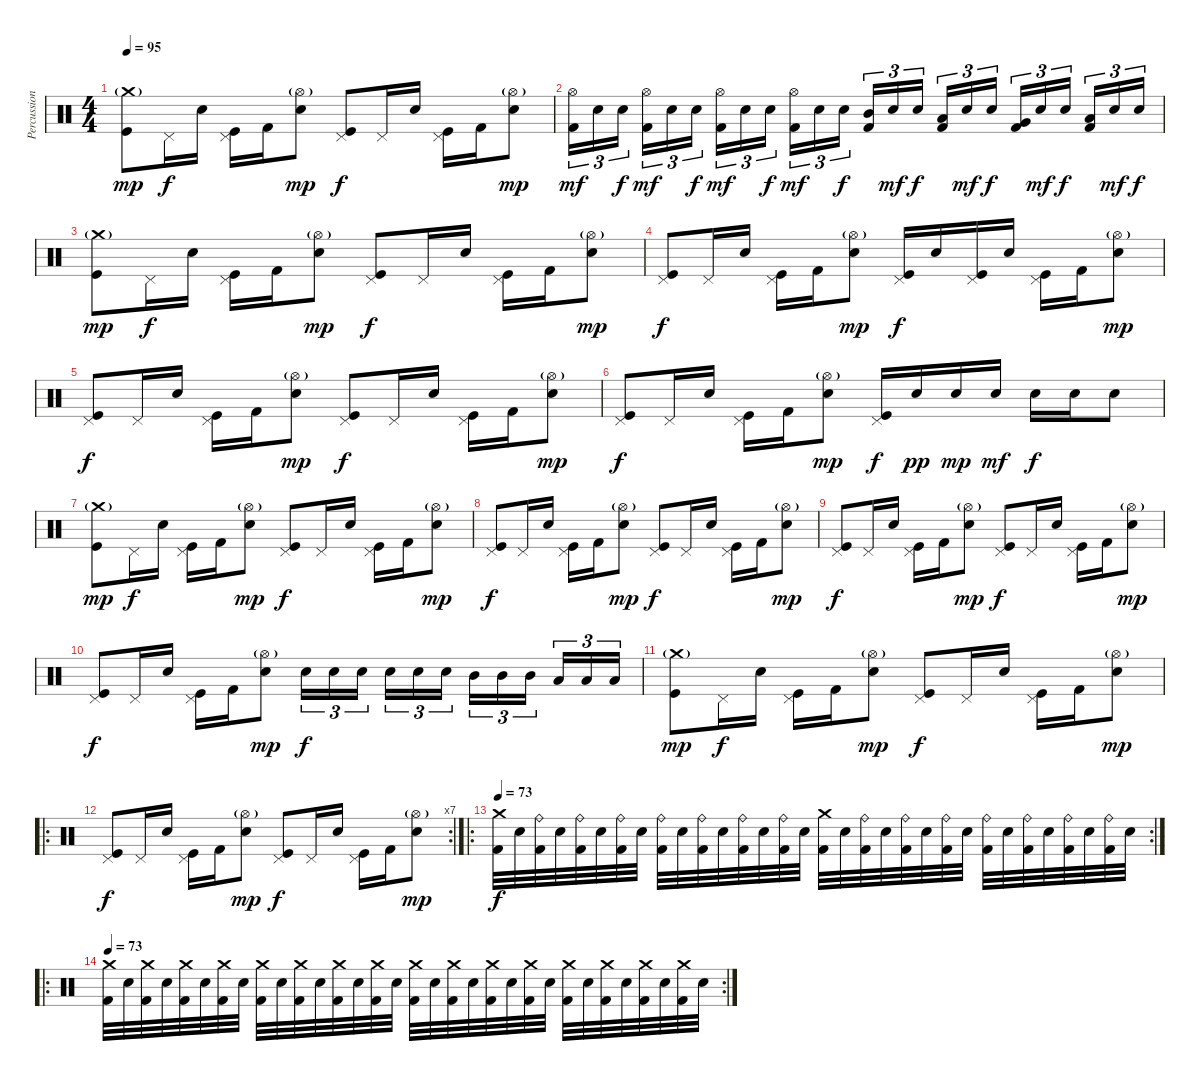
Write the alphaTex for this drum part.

\track ("Percussion" "Percussion") {instrument percussion}
\staff {score}
\articulation defaults
\ts (4 4)
\tempo 95
\clef neutral
\ks c
("Crash medium (hit)"{g} "Kick (hit)").8{dy mp} "Pedal Hi-Hat (hit)".16{dy f} "Electric Snare (hit)".16 ("Pedal Hi-Hat (hit)" "Kick (hit)").16 "Kick (hit) 2".16 ("Hi-Hat (open)"{g} "Electric Snare (hit)").8{dy mp} ("Pedal Hi-Hat (hit)" "Kick (hit)").8{dy f} "Pedal Hi-Hat (hit)".16 "Electric Snare (hit)".16 ("Pedal Hi-Hat (hit)" "Kick (hit)").16 "Kick (hit) 2".16 ("Hi-Hat (open)"{g} "Electric Snare (hit)").8{dy mp} |
("Hi-Hat (open)" "Kick (hit) 2").16{tu (3 2) dy mf} "Electric Snare (hit)".16{tu (3 2)} "Electric Snare (hit)".16{tu (3 2) dy f beam splitsecondary} ("Hi-Hat (open)" "Kick (hit) 2").16{tu (3 2) dy mf} "Electric Snare (hit)".16{tu (3 2)} "Electric Snare (hit)".16{tu (3 2) dy f} ("Hi-Hat (open)" "Kick (hit) 2").16{tu (3 2) dy mf} "Electric Snare (hit)".16{tu (3 2)} "Electric Snare (hit)".16{tu (3 2) dy f beam splitsecondary} ("Hi-Hat (open)" "Kick (hit) 2").16{tu (3 2) dy mf} "Electric Snare (hit)".16{tu (3 2)} "Electric Snare (hit)".16{tu (3 2) dy f} ("Mid Tom (hit)" "Kick (hit) 2").16{tu (3 2)} "Electric Snare (hit)".16{tu (3 2) dy mf} "Electric Snare (hit)".16{tu (3 2) dy f beam splitsecondary} ("Low Tom (hit)" "Kick (hit) 2").16{tu (3 2)} "Electric Snare (hit)".16{tu (3 2) dy mf} "Electric Snare (hit)".16{tu (3 2) dy f} ("Very Low Tom (hit)" "Kick (hit) 2").16{tu (3 2)} "Electric Snare (hit)".16{tu (3 2) dy mf} "Electric Snare (hit)".16{tu (3 2) dy f beam splitsecondary} ("Low Floor Tom (hit)" "Kick (hit) 2").16{tu (3 2)} "Electric Snare (hit)".16{tu (3 2) dy mf} "Electric Snare (hit)".16{tu (3 2) dy f} |
("Crash medium (hit)"{g} "Kick (hit)").8{dy mp} "Pedal Hi-Hat (hit)".16{dy f} "Electric Snare (hit)".16 ("Pedal Hi-Hat (hit)" "Kick (hit)").16 "Kick (hit) 2".16 ("Hi-Hat (open)"{g} "Electric Snare (hit)").8{dy mp} ("Pedal Hi-Hat (hit)" "Kick (hit)").8{dy f} "Pedal Hi-Hat (hit)".16 "Electric Snare (hit)".16 ("Pedal Hi-Hat (hit)" "Kick (hit)").16 "Kick (hit) 2".16 ("Hi-Hat (open)"{g} "Electric Snare (hit)").8{dy mp} |
("Pedal Hi-Hat (hit)" "Kick (hit)").8{dy f} "Pedal Hi-Hat (hit)".16 "Electric Snare (hit)".16 ("Pedal Hi-Hat (hit)" "Kick (hit)").16 "Kick (hit) 2".16 ("Hi-Hat (open)"{g} "Electric Snare (hit)").8{dy mp} ("Pedal Hi-Hat (hit)" "Kick (hit)").16{dy f} "Electric Snare (hit)".16 ("Pedal Hi-Hat (hit)" "Kick (hit)").16 "Electric Snare (hit)".16 ("Pedal Hi-Hat (hit)" "Kick (hit)").16 "Kick (hit) 2".16 ("Hi-Hat (open)"{g} "Electric Snare (hit)").8{dy mp} |
("Pedal Hi-Hat (hit)" "Kick (hit)").8{dy f} "Pedal Hi-Hat (hit)".16 "Electric Snare (hit)".16 ("Pedal Hi-Hat (hit)" "Kick (hit)").16 "Kick (hit) 2".16 ("Hi-Hat (open)"{g} "Electric Snare (hit)").8{dy mp} ("Pedal Hi-Hat (hit)" "Kick (hit)").8{dy f} "Pedal Hi-Hat (hit)".16 "Electric Snare (hit)".16 ("Pedal Hi-Hat (hit)" "Kick (hit)").16 "Kick (hit) 2".16 ("Hi-Hat (open)"{g} "Electric Snare (hit)").8{dy mp} |
("Pedal Hi-Hat (hit)" "Kick (hit)").8{dy f} "Pedal Hi-Hat (hit)".16 "Electric Snare (hit)".16 ("Pedal Hi-Hat (hit)" "Kick (hit)").16 "Kick (hit) 2".16 ("Hi-Hat (open)"{g} "Electric Snare (hit)").8{dy mp} ("Pedal Hi-Hat (hit)" "Kick (hit)").16{dy f} "Electric Snare (hit)".16{dy pp} "Electric Snare (hit)".16{dy mp} "Electric Snare (hit)".16{dy mf} "Electric Snare (hit)".16{dy f} "Electric Snare (hit)".16 "Electric Snare (hit)".8 |
("Crash medium (hit)"{g} "Kick (hit)").8{dy mp} "Pedal Hi-Hat (hit)".16{dy f} "Electric Snare (hit)".16 ("Pedal Hi-Hat (hit)" "Kick (hit)").16 "Kick (hit) 2".16 ("Hi-Hat (open)"{g} "Electric Snare (hit)").8{dy mp} ("Pedal Hi-Hat (hit)" "Kick (hit)").8{dy f} "Pedal Hi-Hat (hit)".16 "Electric Snare (hit)".16 ("Pedal Hi-Hat (hit)" "Kick (hit)").16 "Kick (hit) 2".16 ("Hi-Hat (open)"{g} "Electric Snare (hit)").8{dy mp} |
("Pedal Hi-Hat (hit)" "Kick (hit)").8{dy f} "Pedal Hi-Hat (hit)".16 "Electric Snare (hit)".16 ("Pedal Hi-Hat (hit)" "Kick (hit)").16 "Kick (hit) 2".16 ("Hi-Hat (open)"{g} "Electric Snare (hit)").8{dy mp} ("Pedal Hi-Hat (hit)" "Kick (hit)").8{dy f} "Pedal Hi-Hat (hit)".16 "Electric Snare (hit)".16 ("Pedal Hi-Hat (hit)" "Kick (hit)").16 "Kick (hit) 2".16 ("Hi-Hat (open)"{g} "Electric Snare (hit)").8{dy mp} |
("Pedal Hi-Hat (hit)" "Kick (hit)").8{dy f} "Pedal Hi-Hat (hit)".16 "Electric Snare (hit)".16 ("Pedal Hi-Hat (hit)" "Kick (hit)").16 "Kick (hit) 2".16 ("Hi-Hat (open)"{g} "Electric Snare (hit)").8{dy mp} ("Pedal Hi-Hat (hit)" "Kick (hit)").8{dy f} "Pedal Hi-Hat (hit)".16 "Electric Snare (hit)".16 ("Pedal Hi-Hat (hit)" "Kick (hit)").16 "Kick (hit) 2".16 ("Hi-Hat (open)"{g} "Electric Snare (hit)").8{dy mp} |
("Pedal Hi-Hat (hit)" "Kick (hit)").8{dy f} "Pedal Hi-Hat (hit)".16 "Electric Snare (hit)".16 ("Pedal Hi-Hat (hit)" "Kick (hit)").16 "Kick (hit) 2".16 ("Hi-Hat (open)"{g} "Electric Snare (hit)").8{dy mp} "Electric Snare (hit)".16{tu (3 2) dy f} "Electric Snare (hit)".16{tu (3 2)} "Electric Snare (hit)".16{tu (3 2) beam splitsecondary} "Electric Snare (hit)".16{tu (3 2)} "Electric Snare (hit)".16{tu (3 2)} "Electric Snare (hit)".16{tu (3 2)} "Mid Tom (hit)".16{tu (3 2)} "Mid Tom (hit)".16{tu (3 2)} "Mid Tom (hit)".16{tu (3 2) beam splitsecondary} "Low Tom (hit)".16{tu (3 2)} "Low Tom (hit)".16{tu (3 2)} "Low Tom (hit)".16{tu (3 2)} |
("Crash medium (hit)"{g} "Kick (hit)").8{dy mp} "Pedal Hi-Hat (hit)".16{dy f} "Electric Snare (hit)".16 ("Pedal Hi-Hat (hit)" "Kick (hit)").16 "Kick (hit) 2".16 ("Hi-Hat (open)"{g} "Electric Snare (hit)").8{dy mp} ("Pedal Hi-Hat (hit)" "Kick (hit)").8{dy f} "Pedal Hi-Hat (hit)".16 "Electric Snare (hit)".16 ("Pedal Hi-Hat (hit)" "Kick (hit)").16 "Kick (hit) 2".16 ("Hi-Hat (open)"{g} "Electric Snare (hit)").8{dy mp} |
\ro
\rc 7
("Pedal Hi-Hat (hit)" "Kick (hit)").8{dy f} "Pedal Hi-Hat (hit)".16 "Electric Snare (hit)".16 ("Pedal Hi-Hat (hit)" "Kick (hit)").16 "Kick (hit) 2".16 ("Hi-Hat (open)"{g} "Electric Snare (hit)").8{dy mp} ("Pedal Hi-Hat (hit)" "Kick (hit)").8{dy f} "Pedal Hi-Hat (hit)".16 "Electric Snare (hit)".16 ("Pedal Hi-Hat (hit)" "Kick (hit)").16 "Kick (hit) 2".16 ("Hi-Hat (open)"{g} "Electric Snare (hit)").8{dy mp} |
\ro
\rc 2
\tempo 73
("Crash medium (hit)" "Kick (hit) 2").32{dy f} "Electric Snare (hit)".32 ("Ride (bell)" "Kick (hit) 2").32 "Electric Snare (hit)".32 ("Ride (bell)" "Kick (hit) 2").32 "Electric Snare (hit)".32 ("Ride (bell)" "Kick (hit) 2").32 "Electric Snare (hit)".32 ("Ride (bell)" "Kick (hit) 2").32 "Electric Snare (hit)".32 ("Ride (bell)" "Kick (hit) 2").32 "Electric Snare (hit)".32 ("Ride (bell)" "Kick (hit) 2").32 "Electric Snare (hit)".32 ("Ride (bell)" "Kick (hit) 2").32 "Electric Snare (hit)".32 ("Crash medium (hit)" "Kick (hit) 2").32 "Electric Snare (hit)".32 ("Ride (bell)" "Kick (hit) 2").32 "Electric Snare (hit)".32 ("Ride (bell)" "Kick (hit) 2").32 "Electric Snare (hit)".32 ("Ride (bell)" "Kick (hit) 2").32 "Electric Snare (hit)".32 ("Ride (bell)" "Kick (hit) 2").32 "Electric Snare (hit)".32 ("Ride (bell)" "Kick (hit) 2").32 "Electric Snare (hit)".32 ("Ride (bell)" "Kick (hit) 2").32 "Electric Snare (hit)".32 ("Ride (bell)" "Kick (hit) 2").32 "Electric Snare (hit)".32 |
\ro
\rc 2
\tempo 73
("Crash medium (hit)" "Kick (hit) 2").32 "Electric Snare (hit)".32 ("Crash medium (hit)" "Kick (hit) 2").32 "Electric Snare (hit)".32 ("Crash medium (hit)" "Kick (hit) 2").32 "Electric Snare (hit)".32 ("Crash medium (hit)" "Kick (hit) 2").32 "Electric Snare (hit)".32 ("Crash medium (hit)" "Kick (hit) 2").32 "Electric Snare (hit)".32 ("Crash medium (hit)" "Kick (hit) 2").32 "Electric Snare (hit)".32 ("Crash medium (hit)" "Kick (hit) 2").32 "Electric Snare (hit)".32 ("Crash medium (hit)" "Kick (hit) 2").32 "Electric Snare (hit)".32 ("Crash medium (hit)" "Kick (hit) 2").32 "Electric Snare (hit)".32 ("Crash medium (hit)" "Kick (hit) 2").32 "Electric Snare (hit)".32 ("Crash medium (hit)" "Kick (hit) 2").32 "Electric Snare (hit)".32 ("Crash medium (hit)" "Kick (hit) 2").32 "Electric Snare (hit)".32 ("Crash medium (hit)" "Kick (hit) 2").32 "Electric Snare (hit)".32 ("Crash medium (hit)" "Kick (hit) 2").32 "Electric Snare (hit)".32 ("Crash medium (hit)" "Kick (hit) 2").32 "Electric Snare (hit)".32 ("Crash medium (hit)" "Kick (hit) 2").32 "Electric Snare (hit)".32
